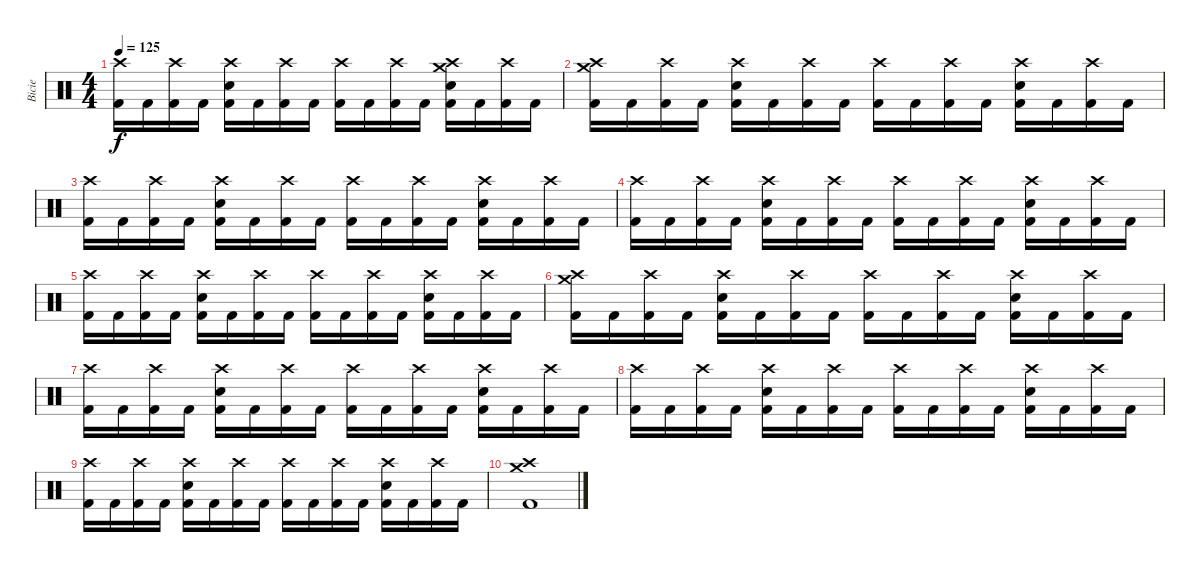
\track ("Bicie" "Bicie") {instrument percussion}
\staff {score}
\articulation defaults
\ts (4 4)
\tempo 125
\clef neutral
\ks c
("Crash high (hit)" "Kick (hit) 2").16{dy f} "Kick (hit) 2".16 ("Crash high (hit)" "Kick (hit) 2").16 "Kick (hit) 2".16 ("Crash high (hit)" "Snare (hit) 2" "Kick (hit) 2").16 "Kick (hit) 2".16 ("Crash high (hit)" "Kick (hit) 2").16 "Kick (hit) 2".16 ("Crash high (hit)" "Kick (hit) 2").16 "Kick (hit) 2".16 ("Crash high (hit)" "Kick (hit) 2").16 "Kick (hit) 2".16 ("Crash high (hit)" "Crash medium (hit)" "Snare (hit) 2" "Kick (hit) 2").16 "Kick (hit) 2".16 ("Crash high (hit)" "Kick (hit) 2").16 "Kick (hit) 2".16 |
("Crash high (hit)" "Crash medium (hit)" "Kick (hit) 2").16 "Kick (hit) 2".16 ("Crash high (hit)" "Kick (hit) 2").16 "Kick (hit) 2".16 ("Crash high (hit)" "Snare (hit) 2" "Kick (hit) 2").16 "Kick (hit) 2".16 ("Crash high (hit)" "Kick (hit) 2").16 "Kick (hit) 2".16 ("Crash high (hit)" "Kick (hit) 2").16 "Kick (hit) 2".16 ("Crash high (hit)" "Kick (hit) 2").16 "Kick (hit) 2".16 ("Crash high (hit)" "Snare (hit) 2" "Kick (hit) 2").16 "Kick (hit) 2".16 ("Crash high (hit)" "Kick (hit) 2").16 "Kick (hit) 2".16 |
("Crash high (hit)" "Kick (hit) 2").16 "Kick (hit) 2".16 ("Crash high (hit)" "Kick (hit) 2").16 "Kick (hit) 2".16 ("Crash high (hit)" "Snare (hit) 2" "Kick (hit) 2").16 "Kick (hit) 2".16 ("Crash high (hit)" "Kick (hit) 2").16 "Kick (hit) 2".16 ("Crash high (hit)" "Kick (hit) 2").16 "Kick (hit) 2".16 ("Crash high (hit)" "Kick (hit) 2").16 "Kick (hit) 2".16 ("Crash high (hit)" "Snare (hit) 2" "Kick (hit) 2").16 "Kick (hit) 2".16 ("Crash high (hit)" "Kick (hit) 2").16 "Kick (hit) 2".16 |
("Crash high (hit)" "Kick (hit) 2").16 "Kick (hit) 2".16 ("Crash high (hit)" "Kick (hit) 2").16 "Kick (hit) 2".16 ("Crash high (hit)" "Snare (hit) 2" "Kick (hit) 2").16 "Kick (hit) 2".16 ("Crash high (hit)" "Kick (hit) 2").16 "Kick (hit) 2".16 ("Crash high (hit)" "Kick (hit) 2").16 "Kick (hit) 2".16 ("Crash high (hit)" "Kick (hit) 2").16 "Kick (hit) 2".16 ("Crash high (hit)" "Snare (hit) 2" "Kick (hit) 2").16 "Kick (hit) 2".16 ("Crash high (hit)" "Kick (hit) 2").16 "Kick (hit) 2".16 |
("Crash high (hit)" "Kick (hit) 2").16 "Kick (hit) 2".16 ("Crash high (hit)" "Kick (hit) 2").16 "Kick (hit) 2".16 ("Crash high (hit)" "Snare (hit) 2" "Kick (hit) 2").16 "Kick (hit) 2".16 ("Crash high (hit)" "Kick (hit) 2").16 "Kick (hit) 2".16 ("Crash high (hit)" "Kick (hit) 2").16 "Kick (hit) 2".16 ("Crash high (hit)" "Kick (hit) 2").16 "Kick (hit) 2".16 ("Crash high (hit)" "Snare (hit) 2" "Kick (hit) 2").16 "Kick (hit) 2".16 ("Crash high (hit)" "Kick (hit) 2").16 "Kick (hit) 2".16 |
("Crash high (hit)" "Crash medium (hit)" "Kick (hit) 2").16 "Kick (hit) 2".16 ("Crash high (hit)" "Kick (hit) 2").16 "Kick (hit) 2".16 ("Crash high (hit)" "Snare (hit) 2" "Kick (hit) 2").16 "Kick (hit) 2".16 ("Crash high (hit)" "Kick (hit) 2").16 "Kick (hit) 2".16 ("Crash high (hit)" "Kick (hit) 2").16 "Kick (hit) 2".16 ("Crash high (hit)" "Kick (hit) 2").16 "Kick (hit) 2".16 ("Crash high (hit)" "Snare (hit) 2" "Kick (hit) 2").16 "Kick (hit) 2".16 ("Crash high (hit)" "Kick (hit) 2").16 "Kick (hit) 2".16 |
("Crash high (hit)" "Kick (hit) 2").16 "Kick (hit) 2".16 ("Crash high (hit)" "Kick (hit) 2").16 "Kick (hit) 2".16 ("Crash high (hit)" "Snare (hit) 2" "Kick (hit) 2").16 "Kick (hit) 2".16 ("Crash high (hit)" "Kick (hit) 2").16 "Kick (hit) 2".16 ("Crash high (hit)" "Kick (hit) 2").16 "Kick (hit) 2".16 ("Crash high (hit)" "Kick (hit) 2").16 "Kick (hit) 2".16 ("Crash high (hit)" "Snare (hit) 2" "Kick (hit) 2").16 "Kick (hit) 2".16 ("Crash high (hit)" "Kick (hit) 2").16 "Kick (hit) 2".16 |
("Crash high (hit)" "Kick (hit) 2").16 "Kick (hit) 2".16 ("Crash high (hit)" "Kick (hit) 2").16 "Kick (hit) 2".16 ("Crash high (hit)" "Snare (hit) 2" "Kick (hit) 2").16 "Kick (hit) 2".16 ("Crash high (hit)" "Kick (hit) 2").16 "Kick (hit) 2".16 ("Crash high (hit)" "Kick (hit) 2").16 "Kick (hit) 2".16 ("Crash high (hit)" "Kick (hit) 2").16 "Kick (hit) 2".16 ("Crash high (hit)" "Snare (hit) 2" "Kick (hit) 2").16 "Kick (hit) 2".16 ("Crash high (hit)" "Kick (hit) 2").16 "Kick (hit) 2".16 |
("Crash high (hit)" "Kick (hit) 2").16 "Kick (hit) 2".16 ("Crash high (hit)" "Kick (hit) 2").16 "Kick (hit) 2".16 ("Crash high (hit)" "Snare (hit) 2" "Kick (hit) 2").16 "Kick (hit) 2".16 ("Crash high (hit)" "Kick (hit) 2").16 "Kick (hit) 2".16 ("Crash high (hit)" "Kick (hit) 2").16 "Kick (hit) 2".16 ("Crash high (hit)" "Kick (hit) 2").16 "Kick (hit) 2".16 ("Crash high (hit)" "Snare (hit) 2" "Kick (hit) 2").16 "Kick (hit) 2".16 ("Crash high (hit)" "Kick (hit) 2").16 "Kick (hit) 2".16 |
("Crash medium (hit)" "Crash high (hit)" "Kick (hit) 2").1
